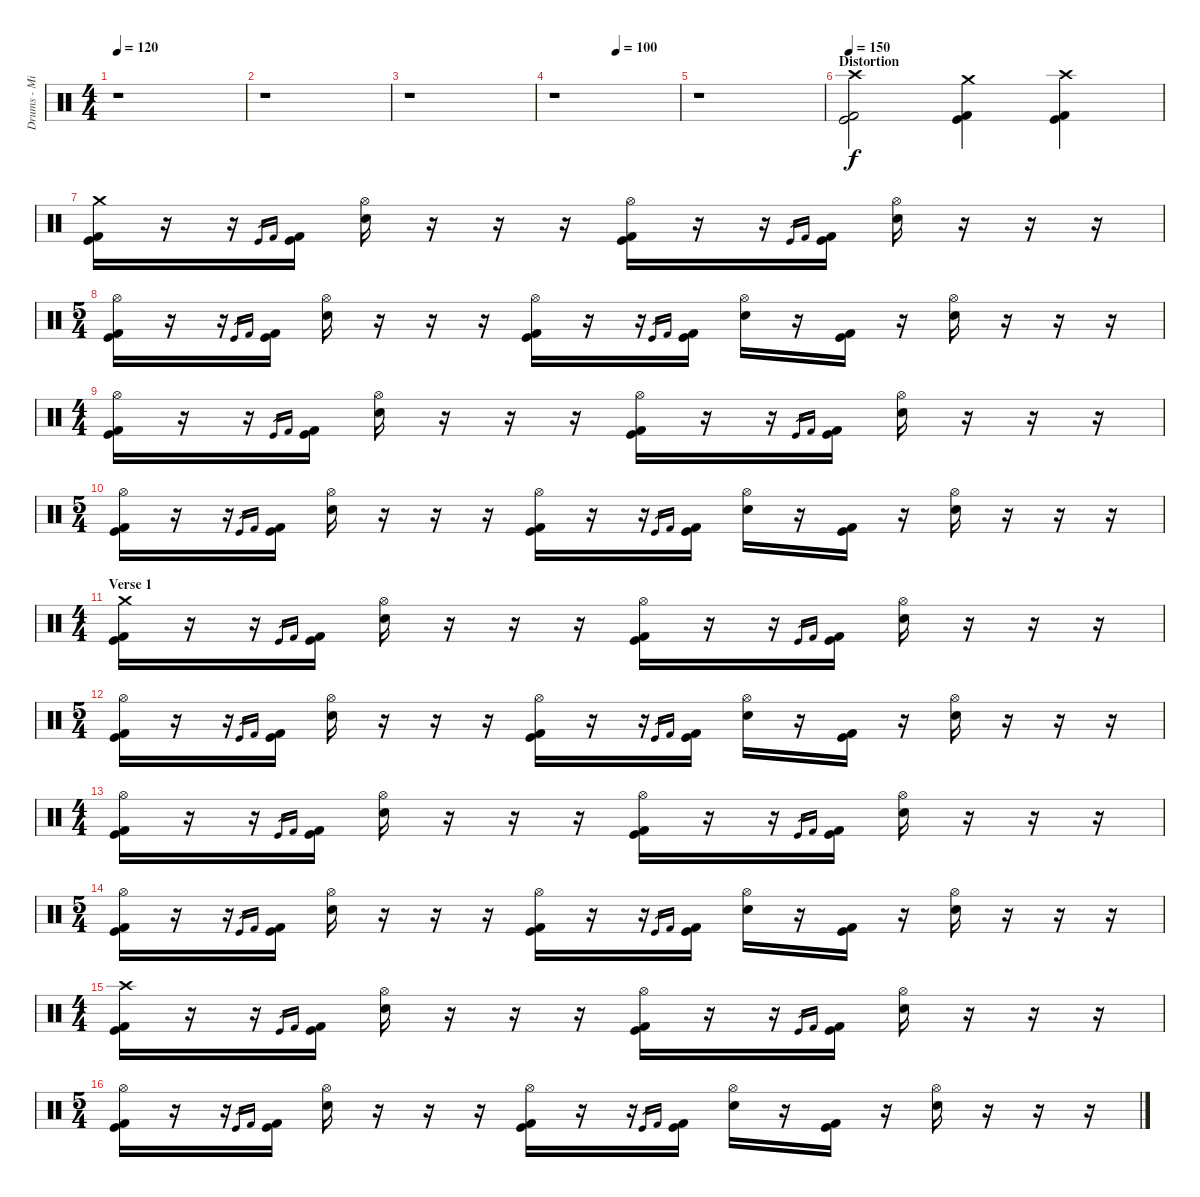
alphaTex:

\track ("Drums - Mikkey Dee" "Drums - Mi") {instrument percussion}
\staff {score}
\articulation defaults
\ts (4 4)
\tempo 120
\clef neutral
\ks c
r.1{dy f} |
r.1 |
r.1 |
\tempo (100 0.5)
r.1 |
r.1 |
\section ("" "Distortion")
\tempo 150
("Crash high (hit)" "Kick (hit)" "Kick (hit) 2").2 ("Crash medium (hit)" "Kick (hit)" "Kick (hit) 2").4 ("Crash high (hit)" "Kick (hit)" "Kick (hit) 2").4 |
("Crash medium (hit)" "Kick (hit)" "Kick (hit) 2").16 r.16 r.16 "Kick (hit)".16{gr} "Kick (hit) 2".16{gr} ("Kick (hit)" "Kick (hit) 2").16 ("Hi-Hat (open)" "Electric Snare (hit)").16 r.16 r.16 r.16 ("Hi-Hat (open)" "Kick (hit)" "Kick (hit) 2").16 r.16 r.16 "Kick (hit)".16{gr} "Kick (hit) 2".16{gr} ("Kick (hit)" "Kick (hit) 2").16 ("Hi-Hat (open)" "Electric Snare (hit)").16 r.16 r.16 r.16 |
\ts (5 4)
("Hi-Hat (open)" "Kick (hit)" "Kick (hit) 2").16 r.16 r.16 "Kick (hit)".16{gr} "Kick (hit) 2".16{gr} ("Kick (hit)" "Kick (hit) 2").16 ("Hi-Hat (open)" "Electric Snare (hit)").16 r.16 r.16 r.16 ("Hi-Hat (open)" "Kick (hit)" "Kick (hit) 2").16 r.16 r.16 "Kick (hit)".16{gr} "Kick (hit) 2".16{gr} ("Kick (hit)" "Kick (hit) 2").16 ("Hi-Hat (open)" "Electric Snare (hit)").16 r.16 ("Kick (hit)" "Kick (hit) 2").16 r.16 ("Hi-Hat (open)" "Electric Snare (hit)").16 r.16 r.16 r.16 |
\ts (4 4)
("Hi-Hat (open)" "Kick (hit)" "Kick (hit) 2").16 r.16 r.16 "Kick (hit)".16{gr} "Kick (hit) 2".16{gr} ("Kick (hit)" "Kick (hit) 2").16 ("Hi-Hat (open)" "Electric Snare (hit)").16 r.16 r.16 r.16 ("Hi-Hat (open)" "Kick (hit)" "Kick (hit) 2").16 r.16 r.16 "Kick (hit)".16{gr} "Kick (hit) 2".16{gr} ("Kick (hit)" "Kick (hit) 2").16 ("Hi-Hat (open)" "Electric Snare (hit)").16 r.16 r.16 r.16 |
\ts (5 4)
("Hi-Hat (open)" "Kick (hit)" "Kick (hit) 2").16 r.16 r.16 "Kick (hit)".16{gr} "Kick (hit) 2".16{gr} ("Kick (hit)" "Kick (hit) 2").16 ("Hi-Hat (open)" "Electric Snare (hit)").16 r.16 r.16 r.16 ("Hi-Hat (open)" "Kick (hit)" "Kick (hit) 2").16 r.16 r.16 "Kick (hit)".16{gr} "Kick (hit) 2".16{gr} ("Kick (hit)" "Kick (hit) 2").16 ("Hi-Hat (open)" "Electric Snare (hit)").16 r.16 ("Kick (hit)" "Kick (hit) 2").16 r.16 ("Hi-Hat (open)" "Electric Snare (hit)").16 r.16 r.16 r.16 |
\ts (4 4)
\section ("" "Verse 1")
("Crash medium (hit)" "Kick (hit)" "Kick (hit) 2").16 r.16 r.16 "Kick (hit)".16{gr} "Kick (hit) 2".16{gr} ("Kick (hit)" "Kick (hit) 2").16 ("Hi-Hat (open)" "Electric Snare (hit)").16 r.16 r.16 r.16 ("Hi-Hat (open)" "Kick (hit)" "Kick (hit) 2").16 r.16 r.16 "Kick (hit)".16{gr} "Kick (hit) 2".16{gr} ("Kick (hit)" "Kick (hit) 2").16 ("Hi-Hat (open)" "Electric Snare (hit)").16 r.16 r.16 r.16 |
\ts (5 4)
("Hi-Hat (open)" "Kick (hit)" "Kick (hit) 2").16 r.16 r.16 "Kick (hit)".16{gr} "Kick (hit) 2".16{gr} ("Kick (hit)" "Kick (hit) 2").16 ("Hi-Hat (open)" "Electric Snare (hit)").16 r.16 r.16 r.16 ("Hi-Hat (open)" "Kick (hit)" "Kick (hit) 2").16 r.16 r.16 "Kick (hit)".16{gr} "Kick (hit) 2".16{gr} ("Kick (hit)" "Kick (hit) 2").16 ("Hi-Hat (open)" "Electric Snare (hit)").16 r.16 ("Kick (hit)" "Kick (hit) 2").16 r.16 ("Hi-Hat (open)" "Electric Snare (hit)").16 r.16 r.16 r.16 |
\ts (4 4)
("Hi-Hat (open)" "Kick (hit)" "Kick (hit) 2").16 r.16 r.16 "Kick (hit)".16{gr} "Kick (hit) 2".16{gr} ("Kick (hit)" "Kick (hit) 2").16 ("Hi-Hat (open)" "Electric Snare (hit)").16 r.16 r.16 r.16 ("Hi-Hat (open)" "Kick (hit)" "Kick (hit) 2").16 r.16 r.16 "Kick (hit)".16{gr} "Kick (hit) 2".16{gr} ("Kick (hit)" "Kick (hit) 2").16 ("Hi-Hat (open)" "Electric Snare (hit)").16 r.16 r.16 r.16 |
\ts (5 4)
("Hi-Hat (open)" "Kick (hit)" "Kick (hit) 2").16 r.16 r.16 "Kick (hit)".16{gr} "Kick (hit) 2".16{gr} ("Kick (hit)" "Kick (hit) 2").16 ("Hi-Hat (open)" "Electric Snare (hit)").16 r.16 r.16 r.16 ("Hi-Hat (open)" "Kick (hit)" "Kick (hit) 2").16 r.16 r.16 "Kick (hit)".16{gr} "Kick (hit) 2".16{gr} ("Kick (hit)" "Kick (hit) 2").16 ("Hi-Hat (open)" "Electric Snare (hit)").16 r.16 ("Kick (hit)" "Kick (hit) 2").16 r.16 ("Hi-Hat (open)" "Electric Snare (hit)").16 r.16 r.16 r.16 |
\ts (4 4)
("Crash high (hit)" "Kick (hit)" "Kick (hit) 2").16 r.16 r.16 "Kick (hit)".16{gr} "Kick (hit) 2".16{gr} ("Kick (hit)" "Kick (hit) 2").16 ("Hi-Hat (open)" "Electric Snare (hit)").16 r.16 r.16 r.16 ("Hi-Hat (open)" "Kick (hit)" "Kick (hit) 2").16 r.16 r.16 "Kick (hit)".16{gr} "Kick (hit) 2".16{gr} ("Kick (hit)" "Kick (hit) 2").16 ("Hi-Hat (open)" "Electric Snare (hit)").16 r.16 r.16 r.16 |
\ts (5 4)
("Hi-Hat (open)" "Kick (hit)" "Kick (hit) 2").16 r.16 r.16 "Kick (hit)".16{gr} "Kick (hit) 2".16{gr} ("Kick (hit)" "Kick (hit) 2").16 ("Hi-Hat (open)" "Electric Snare (hit)").16 r.16 r.16 r.16 ("Hi-Hat (open)" "Kick (hit)" "Kick (hit) 2").16 r.16 r.16 "Kick (hit)".16{gr} "Kick (hit) 2".16{gr} ("Kick (hit)" "Kick (hit) 2").16 ("Hi-Hat (open)" "Electric Snare (hit)").16 r.16 ("Kick (hit)" "Kick (hit) 2").16 r.16 ("Hi-Hat (open)" "Electric Snare (hit)").16 r.16 r.16 r.16
